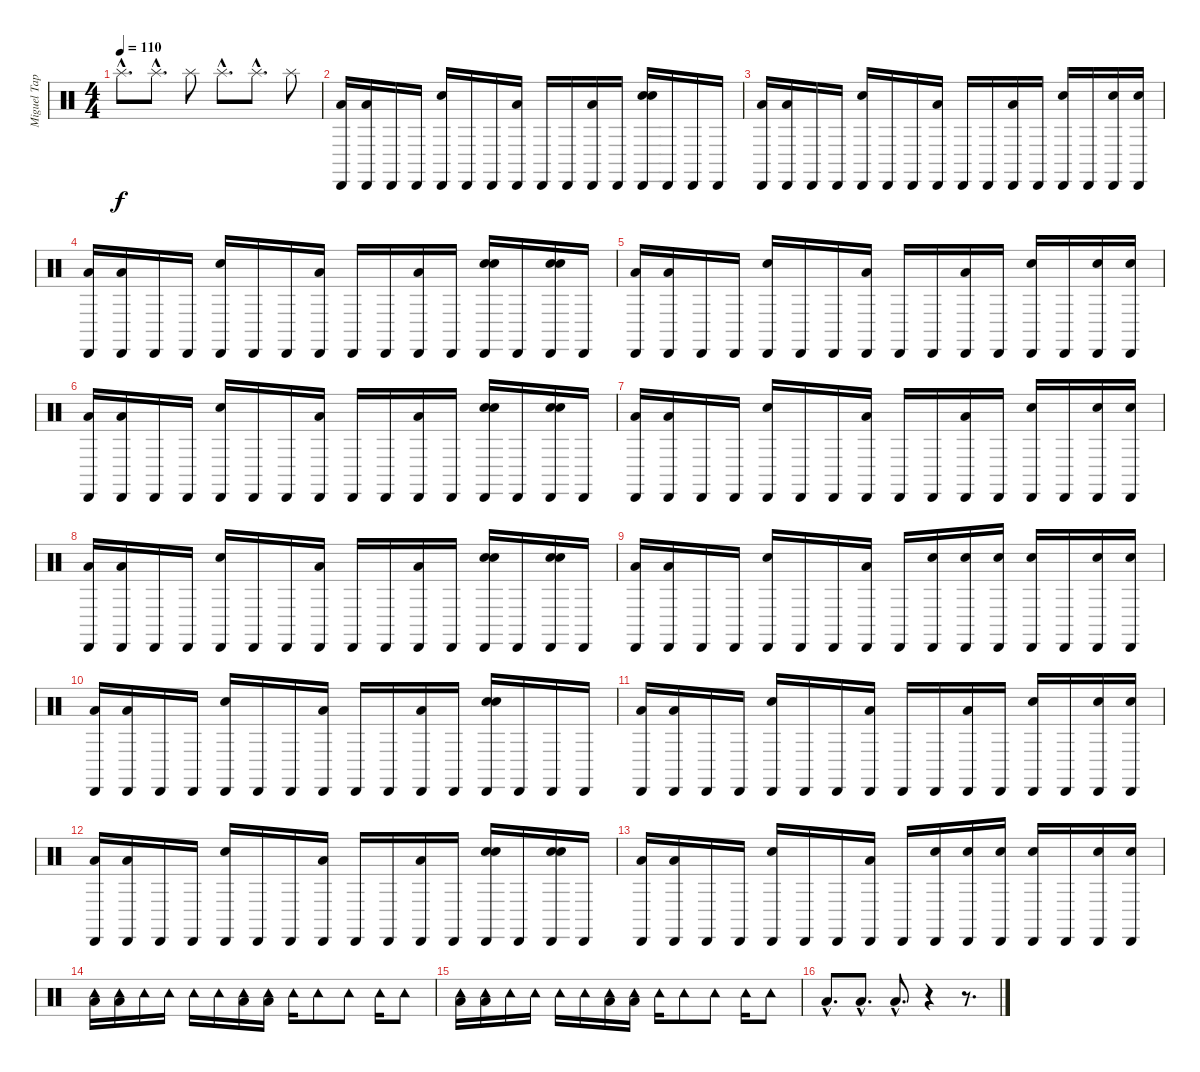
\track ("Miguel Tapia (Bateria)" "Miguel Tap") {instrument percussion}
\staff {score}
\articulation defaults
\ts (4 4)
\tempo 110
\clef neutral
\ks c "Splash (hit)"{hac}.8{d dy f} "Splash (hit)"{hac}.8{d} "Splash (hit)".8 "Splash (hit)"{hac}.8{d} "Splash (hit)"{hac}.8{d} "Splash (hit)".8
|
("Cabasa (hit)" "Low Tom (hit)").16 ("Cabasa (hit)" "Low Tom (hit)").16 "Cabasa (hit)".16 "Cabasa (hit)".16 ("Cabasa (hit)" "Snare (hit) 2").16 "Cabasa (hit)".16 "Cabasa (hit)".16 ("Cabasa (hit)" "Low Tom (hit)").16 "Cabasa (hit)".16 "Cabasa (hit)".16 ("Cabasa (hit)" "Low Tom (hit)").16 "Cabasa (hit)".16 ("Cabasa (hit)" "Snare (hit) 2" "Electric Snare (hit)").16 "Cabasa (hit)".16 "Cabasa (hit)".16 "Cabasa (hit)".16 |
("Cabasa (hit)" "Low Tom (hit)").16 ("Cabasa (hit)" "Low Tom (hit)").16 "Cabasa (hit)".16 "Cabasa (hit)".16 ("Cabasa (hit)" "Snare (hit) 2").16 "Cabasa (hit)".16 "Cabasa (hit)".16 ("Cabasa (hit)" "Low Tom (hit)").16 "Cabasa (hit)".16 "Cabasa (hit)".16 ("Cabasa (hit)" "Low Tom (hit)").16 "Cabasa (hit)".16 ("Cabasa (hit)" "Snare (hit) 2").16 "Cabasa (hit)".16 ("Cabasa (hit)" "Snare (hit) 2").16 ("Cabasa (hit)" "Snare (hit) 2").16 |
("Cabasa (hit)" "Low Tom (hit)").16 ("Cabasa (hit)" "Low Tom (hit)").16 "Cabasa (hit)".16 "Cabasa (hit)".16 ("Cabasa (hit)" "Snare (hit) 2").16 "Cabasa (hit)".16 "Cabasa (hit)".16 ("Cabasa (hit)" "Low Tom (hit)").16 "Cabasa (hit)".16 "Cabasa (hit)".16 ("Cabasa (hit)" "Low Tom (hit)").16 "Cabasa (hit)".16 ("Cabasa (hit)" "Snare (hit) 2" "Electric Snare (hit)").16 "Cabasa (hit)".16 ("Cabasa (hit)" "Snare (hit) 2" "Electric Snare (hit)").16 "Cabasa (hit)".16 |
("Cabasa (hit)" "Low Tom (hit)").16 ("Cabasa (hit)" "Low Tom (hit)").16 "Cabasa (hit)".16 "Cabasa (hit)".16 ("Cabasa (hit)" "Snare (hit) 2").16 "Cabasa (hit)".16 "Cabasa (hit)".16 ("Cabasa (hit)" "Low Tom (hit)").16 "Cabasa (hit)".16 "Cabasa (hit)".16 ("Cabasa (hit)" "Low Tom (hit)").16 "Cabasa (hit)".16 ("Cabasa (hit)" "Snare (hit) 2").16 "Cabasa (hit)".16 ("Cabasa (hit)" "Snare (hit) 2").16 ("Cabasa (hit)" "Snare (hit) 2").16 |
("Cabasa (hit)" "Low Tom (hit)").16 ("Cabasa (hit)" "Low Tom (hit)").16 "Cabasa (hit)".16 "Cabasa (hit)".16 ("Cabasa (hit)" "Snare (hit) 2").16 "Cabasa (hit)".16 "Cabasa (hit)".16 ("Cabasa (hit)" "Low Tom (hit)").16 "Cabasa (hit)".16 "Cabasa (hit)".16 ("Cabasa (hit)" "Low Tom (hit)").16 "Cabasa (hit)".16 ("Cabasa (hit)" "Snare (hit) 2" "Electric Snare (hit)").16 "Cabasa (hit)".16 ("Cabasa (hit)" "Snare (hit) 2" "Electric Snare (hit)").16 "Cabasa (hit)".16 |
("Cabasa (hit)" "Low Tom (hit)").16 ("Cabasa (hit)" "Low Tom (hit)").16 "Cabasa (hit)".16 "Cabasa (hit)".16 ("Cabasa (hit)" "Snare (hit) 2").16 "Cabasa (hit)".16 "Cabasa (hit)".16 ("Cabasa (hit)" "Low Tom (hit)").16 "Cabasa (hit)".16 "Cabasa (hit)".16 ("Cabasa (hit)" "Low Tom (hit)").16 "Cabasa (hit)".16 ("Cabasa (hit)" "Snare (hit) 2").16 "Cabasa (hit)".16 ("Cabasa (hit)" "Snare (hit) 2").16 ("Cabasa (hit)" "Snare (hit) 2").16 |
("Cabasa (hit)" "Low Tom (hit)").16 ("Cabasa (hit)" "Low Tom (hit)").16 "Cabasa (hit)".16 "Cabasa (hit)".16 ("Cabasa (hit)" "Snare (hit) 2").16 "Cabasa (hit)".16 "Cabasa (hit)".16 ("Cabasa (hit)" "Low Tom (hit)").16 "Cabasa (hit)".16 "Cabasa (hit)".16 ("Cabasa (hit)" "Low Tom (hit)").16 "Cabasa (hit)".16 ("Cabasa (hit)" "Snare (hit) 2" "Electric Snare (hit)").16 "Cabasa (hit)".16 ("Cabasa (hit)" "Snare (hit) 2" "Electric Snare (hit)").16 "Cabasa (hit)".16 |
("Cabasa (hit)" "Low Tom (hit)").16 ("Cabasa (hit)" "Low Tom (hit)").16 "Cabasa (hit)".16 "Cabasa (hit)".16 ("Cabasa (hit)" "Snare (hit) 2").16 "Cabasa (hit)".16 "Cabasa (hit)".16 ("Cabasa (hit)" "Low Tom (hit)").16 "Cabasa (hit)".16 ("Cabasa (hit)" "Snare (hit) 2").16 ("Cabasa (hit)" "Snare (hit) 2").16 ("Cabasa (hit)" "Snare (hit) 2").16 ("Cabasa (hit)" "Snare (hit) 2").16 "Cabasa (hit)".16 ("Cabasa (hit)" "Snare (hit) 2").16 ("Cabasa (hit)" "Snare (hit) 2").16 |
("Cabasa (hit)" "Low Tom (hit)").16 ("Cabasa (hit)" "Low Tom (hit)").16 "Cabasa (hit)".16 "Cabasa (hit)".16 ("Cabasa (hit)" "Snare (hit) 2").16 "Cabasa (hit)".16 "Cabasa (hit)".16 ("Cabasa (hit)" "Low Tom (hit)").16 "Cabasa (hit)".16 "Cabasa (hit)".16 ("Cabasa (hit)" "Low Tom (hit)").16 "Cabasa (hit)".16 ("Cabasa (hit)" "Snare (hit) 2" "Electric Snare (hit)").16 "Cabasa (hit)".16 "Cabasa (hit)".16 "Cabasa (hit)".16 |
("Cabasa (hit)" "Low Tom (hit)").16 ("Cabasa (hit)" "Low Tom (hit)").16 "Cabasa (hit)".16 "Cabasa (hit)".16 ("Cabasa (hit)" "Snare (hit) 2").16 "Cabasa (hit)".16 "Cabasa (hit)".16 ("Cabasa (hit)" "Low Tom (hit)").16 "Cabasa (hit)".16 "Cabasa (hit)".16 ("Cabasa (hit)" "Low Tom (hit)").16 "Cabasa (hit)".16 ("Cabasa (hit)" "Snare (hit) 2").16 "Cabasa (hit)".16 ("Cabasa (hit)" "Snare (hit) 2").16 ("Cabasa (hit)" "Snare (hit) 2").16 |
("Cabasa (hit)" "Low Tom (hit)").16 ("Cabasa (hit)" "Low Tom (hit)").16 "Cabasa (hit)".16 "Cabasa (hit)".16 ("Cabasa (hit)" "Snare (hit) 2").16 "Cabasa (hit)".16 "Cabasa (hit)".16 ("Cabasa (hit)" "Low Tom (hit)").16 "Cabasa (hit)".16 "Cabasa (hit)".16 ("Cabasa (hit)" "Low Tom (hit)").16 "Cabasa (hit)".16 ("Cabasa (hit)" "Snare (hit) 2" "Electric Snare (hit)").16 "Cabasa (hit)".16 ("Cabasa (hit)" "Snare (hit) 2" "Electric Snare (hit)").16 "Cabasa (hit)".16 |
("Cabasa (hit)" "Low Tom (hit)").16 ("Cabasa (hit)" "Low Tom (hit)").16 "Cabasa (hit)".16 "Cabasa (hit)".16 ("Cabasa (hit)" "Snare (hit) 2").16 "Cabasa (hit)".16 "Cabasa (hit)".16 ("Cabasa (hit)" "Low Tom (hit)").16 "Cabasa (hit)".16 ("Cabasa (hit)" "Snare (hit) 2").16 ("Cabasa (hit)" "Snare (hit) 2").16 ("Cabasa (hit)" "Snare (hit) 2").16 ("Cabasa (hit)" "Snare (hit) 2").16 "Cabasa (hit)".16 ("Cabasa (hit)" "Snare (hit) 2").16 ("Cabasa (hit)" "Snare (hit) 2").16 |
("Tambourine (hit)" "Low Tom (hit)").16 ("Tambourine (hit)" "Low Tom (hit)").16 "Tambourine (hit)".16 "Tambourine (hit)".16 "Tambourine (hit)".16 "Tambourine (hit)".16 ("Tambourine (hit)" "Low Tom (hit)").16 ("Tambourine (hit)" "Low Tom (hit)").16 "Tambourine (hit)".16 "Tambourine (hit)".8 "Tambourine (hit)".8 "Tambourine (hit)".16 "Tambourine (hit)".8 |
("Tambourine (hit)" "Low Tom (hit)").16 ("Tambourine (hit)" "Low Tom (hit)").16 "Tambourine (hit)".16 "Tambourine (hit)".16 "Tambourine (hit)".16 "Tambourine (hit)".16 ("Tambourine (hit)" "Low Tom (hit)").16 ("Tambourine (hit)" "Low Tom (hit)").16 "Tambourine (hit)".16 "Tambourine (hit)".8 "Tambourine (hit)".8 "Tambourine (hit)".16 "Tambourine (hit)".8 |
"Low Tom (hit)"{hac}.8{d} "Low Tom (hit)"{hac}.8{d} "Low Tom (hit)"{hac}.8{d} r.4 r.8{d}
